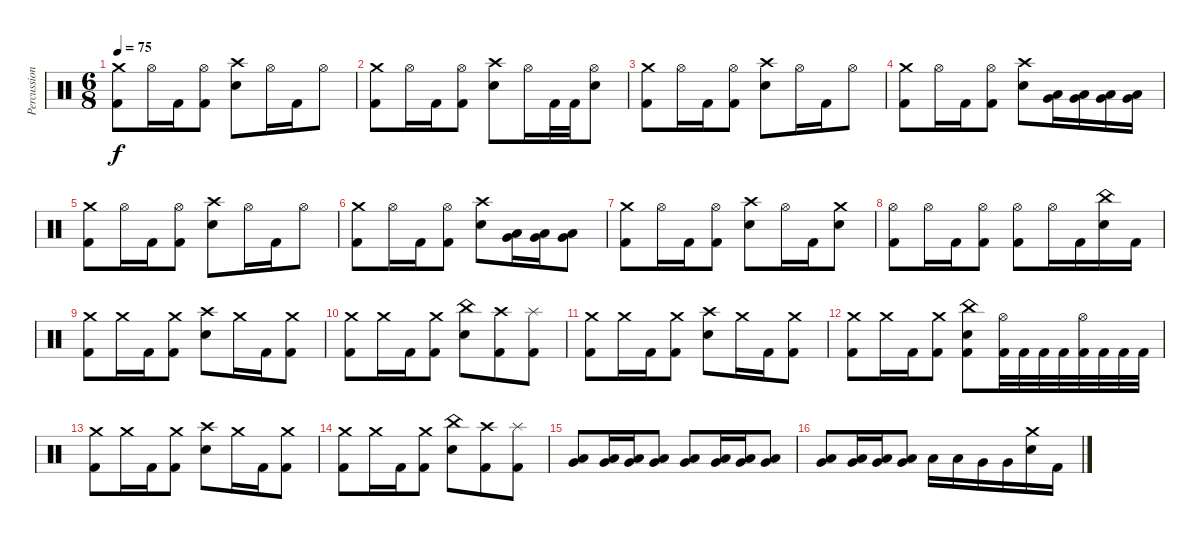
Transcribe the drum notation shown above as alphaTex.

\track ("Percussions" "Percussion") {instrument percussion}
\staff {score}
\articulation defaults
\ts (6 8)
\tempo 75
\clef neutral
\ks c
("Crash medium (hit)" "Kick (hit) 2").8{dy f} "Hi-Hat (open)".16 "Kick (hit) 2".16 ("Hi-Hat (open)" "Kick (hit) 2").8 ("Crash high (hit)" "Electric Snare (hit)").8 "Hi-Hat (open)".16 "Kick (hit) 2".16 "Hi-Hat (open)".8 |
("Crash medium (hit)" "Kick (hit) 2").8 "Hi-Hat (open)".16 "Kick (hit) 2".16 ("Hi-Hat (open)" "Kick (hit) 2").8 ("Crash high (hit)" "Electric Snare (hit)").8 "Hi-Hat (open)".16 "Kick (hit) 2".32 "Kick (hit) 2".32 ("Hi-Hat (open)" "Electric Snare (hit)").8 |
("Crash medium (hit)" "Kick (hit) 2").8 "Hi-Hat (open)".16 "Kick (hit) 2".16 ("Hi-Hat (open)" "Kick (hit) 2").8 ("Crash high (hit)" "Electric Snare (hit)").8 "Hi-Hat (open)".16 "Kick (hit) 2".16 "Hi-Hat (open)".8 |
("Crash medium (hit)" "Kick (hit) 2").8 "Hi-Hat (open)".16 "Kick (hit) 2".16 ("Hi-Hat (open)" "Kick (hit) 2").8 ("Crash high (hit)" "Electric Snare (hit)").8 ("Low Tom (hit)" "Very Low Tom (hit)").16 ("Low Tom (hit)" "Very Low Tom (hit)").16 ("Low Tom (hit)" "Very Low Tom (hit)").16 ("Low Tom (hit)" "Very Low Tom (hit)").16 |
("Crash medium (hit)" "Kick (hit) 2").8 "Hi-Hat (open)".16 "Kick (hit) 2".16 ("Hi-Hat (open)" "Kick (hit) 2").8 ("Crash high (hit)" "Electric Snare (hit)").8 "Hi-Hat (open)".16 "Kick (hit) 2".16 "Hi-Hat (open)".8 |
("Crash medium (hit)" "Kick (hit) 2").8 "Hi-Hat (open)".16 "Kick (hit) 2".16 ("Hi-Hat (open)" "Kick (hit) 2").8 ("Crash high (hit)" "Electric Snare (hit)").8 ("Low Tom (hit)" "Very Low Tom (hit)").16 ("Low Tom (hit)" "Very Low Tom (hit)").16 ("Low Tom (hit)" "Very Low Tom (hit)").8 |
("Crash medium (hit)" "Kick (hit) 2").8 "Hi-Hat (open)".16 "Kick (hit) 2".16 ("Hi-Hat (open)" "Kick (hit) 2").8 ("Crash high (hit)" "Electric Snare (hit)").8 "Hi-Hat (open)".16 "Kick (hit) 2".16 ("Crash medium (hit)" "Electric Snare (hit)").8 |
("Hi-Hat (open)" "Kick (hit) 2").8 "Hi-Hat (open)".16 "Kick (hit) 2".16 ("Hi-Hat (open)" "Kick (hit) 2").8 ("Hi-Hat (open)" "Kick (hit) 2").8 "Hi-Hat (open)".16 "Kick (hit) 2".16 ("China (hit)" "Electric Snare (hit)").16 "Kick (hit) 2".16 |
("Crash medium (hit)" "Kick (hit) 2").8 "Crash medium (hit)".16 "Kick (hit) 2".16 ("Crash medium (hit)" "Kick (hit) 2").8 ("Crash high (hit)" "Electric Snare (hit)").8 "Crash medium (hit)".16 "Kick (hit) 2".16 ("Crash medium (hit)" "Kick (hit) 2").8 |
("Crash medium (hit)" "Kick (hit) 2").8 "Crash medium (hit)".16 "Kick (hit) 2".16 ("Crash medium (hit)" "Kick (hit) 2").8 ("China (hit)" "Electric Snare (hit)").8 ("Crash high (hit)" "Kick (hit) 2").8 ("Splash (hit)" "Kick (hit) 2").8 |
("Crash medium (hit)" "Kick (hit) 2").8 "Crash medium (hit)".16 "Kick (hit) 2".16 ("Crash medium (hit)" "Kick (hit) 2").8 ("Crash high (hit)" "Electric Snare (hit)").8 "Crash medium (hit)".16 "Kick (hit) 2".16 ("Crash medium (hit)" "Kick (hit) 2").8 |
("Crash medium (hit)" "Kick (hit) 2").8 "Crash medium (hit)".16 "Kick (hit) 2".16 ("Crash medium (hit)" "Kick (hit) 2").8 ("China (hit)" "Electric Snare (hit)" "Kick (hit) 2").8 ("Hi-Hat (open)" "Kick (hit) 2").32 "Kick (hit) 2".32 "Kick (hit) 2".32 "Kick (hit) 2".32 ("Hi-Hat (open)" "Kick (hit) 2").32 "Kick (hit) 2".32 "Kick (hit) 2".32 "Kick (hit) 2".32 |
("Crash medium (hit)" "Kick (hit) 2").8 "Crash medium (hit)".16 "Kick (hit) 2".16 ("Crash medium (hit)" "Kick (hit) 2").8 ("Crash high (hit)" "Electric Snare (hit)").8 "Crash medium (hit)".16 "Kick (hit) 2".16 ("Crash medium (hit)" "Kick (hit) 2").8 |
("Crash medium (hit)" "Kick (hit) 2").8 "Crash medium (hit)".16 "Kick (hit) 2".16 ("Crash medium (hit)" "Kick (hit) 2").8 ("China (hit)" "Electric Snare (hit)").8 ("Crash high (hit)" "Kick (hit) 2").8 ("Splash (hit)" "Kick (hit) 2").8 |
("Low Tom (hit)" "Very Low Tom (hit)").8 ("Low Tom (hit)" "Very Low Tom (hit)").16 ("Low Tom (hit)" "Very Low Tom (hit)").16 ("Low Tom (hit)" "Very Low Tom (hit)").8 ("Low Tom (hit)" "Very Low Tom (hit)").8 ("Low Tom (hit)" "Very Low Tom (hit)").16 ("Low Tom (hit)" "Very Low Tom (hit)").16 ("Low Tom (hit)" "Very Low Tom (hit)").8 |
("Low Tom (hit)" "Very Low Tom (hit)").8 ("Low Tom (hit)" "Very Low Tom (hit)").16 ("Low Tom (hit)" "Very Low Tom (hit)").16 ("Low Tom (hit)" "Very Low Tom (hit)").8 "Low Tom (hit)".16 "Low Tom (hit)".16 "Very Low Tom (hit)".16 "Very Low Tom (hit)".16 ("Crash medium (hit)" "Electric Snare (hit)").16 "Kick (hit) 2".16
